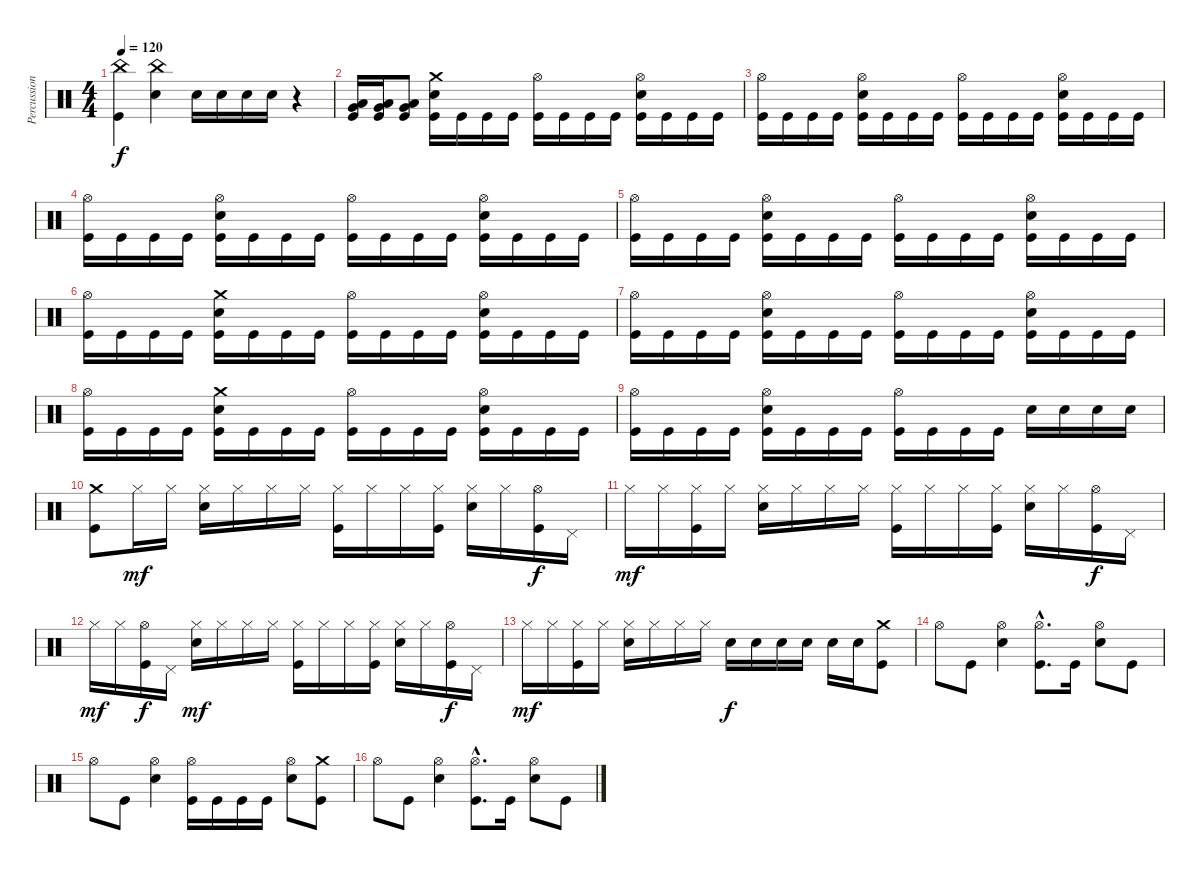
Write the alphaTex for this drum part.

\track ("Percussions" "Percussion") {instrument percussion}
\staff {score}
\articulation defaults
\ts (4 4)
\tempo 120
\clef neutral
\ks c
("Kick (hit)" "China (hit)").4{dy f} ("Electric Snare (hit)" "China (hit)").4 "Electric Snare (hit)".16 "Electric Snare (hit)".16 "Electric Snare (hit)".16 "Electric Snare (hit)".16 r.4 |
("Kick (hit)" "Very Low Tom (hit)" "Low Floor Tom (hit)").16 ("Kick (hit)" "Very Low Tom (hit)" "Low Floor Tom (hit)").16 ("Kick (hit)" "Very Low Tom (hit)" "Low Floor Tom (hit)").8 ("Kick (hit)" "Electric Snare (hit)" "Crash medium (hit)").16 "Kick (hit)".16 "Kick (hit)".16 "Kick (hit)".16 ("Kick (hit)" "Hi-Hat (open)").16 "Kick (hit)".16 "Kick (hit)".16 "Kick (hit)".16 ("Kick (hit)" "Electric Snare (hit)" "Hi-Hat (open)").16 "Kick (hit)".16 "Kick (hit)".16 "Kick (hit)".16 |
("Kick (hit)" "Hi-Hat (open)").16 "Kick (hit)".16 "Kick (hit)".16 "Kick (hit)".16 ("Kick (hit)" "Electric Snare (hit)" "Hi-Hat (open)").16 "Kick (hit)".16 "Kick (hit)".16 "Kick (hit)".16 ("Kick (hit)" "Hi-Hat (open)").16 "Kick (hit)".16 "Kick (hit)".16 "Kick (hit)".16 ("Kick (hit)" "Electric Snare (hit)" "Hi-Hat (open)").16 "Kick (hit)".16 "Kick (hit)".16 "Kick (hit)".16 |
("Kick (hit)" "Hi-Hat (open)").16 "Kick (hit)".16 "Kick (hit)".16 "Kick (hit)".16 ("Kick (hit)" "Electric Snare (hit)" "Hi-Hat (open)").16 "Kick (hit)".16 "Kick (hit)".16 "Kick (hit)".16 ("Kick (hit)" "Hi-Hat (open)").16 "Kick (hit)".16 "Kick (hit)".16 "Kick (hit)".16 ("Kick (hit)" "Electric Snare (hit)" "Hi-Hat (open)").16 "Kick (hit)".16 "Kick (hit)".16 "Kick (hit)".16 |
("Kick (hit)" "Hi-Hat (open)").16 "Kick (hit)".16 "Kick (hit)".16 "Kick (hit)".16 ("Kick (hit)" "Electric Snare (hit)" "Hi-Hat (open)").16 "Kick (hit)".16 "Kick (hit)".16 "Kick (hit)".16 ("Kick (hit)" "Hi-Hat (open)").16 "Kick (hit)".16 "Kick (hit)".16 "Kick (hit)".16 ("Kick (hit)" "Electric Snare (hit)" "Hi-Hat (open)").16 "Kick (hit)".16 "Kick (hit)".16 "Kick (hit)".16 |
("Kick (hit)" "Hi-Hat (open)").16 "Kick (hit)".16 "Kick (hit)".16 "Kick (hit)".16 ("Kick (hit)" "Electric Snare (hit)" "Crash medium (hit)").16 "Kick (hit)".16 "Kick (hit)".16 "Kick (hit)".16 ("Kick (hit)" "Hi-Hat (open)").16 "Kick (hit)".16 "Kick (hit)".16 "Kick (hit)".16 ("Kick (hit)" "Electric Snare (hit)" "Hi-Hat (open)").16 "Kick (hit)".16 "Kick (hit)".16 "Kick (hit)".16 |
("Kick (hit)" "Hi-Hat (open)").16 "Kick (hit)".16 "Kick (hit)".16 "Kick (hit)".16 ("Kick (hit)" "Electric Snare (hit)" "Hi-Hat (open)").16 "Kick (hit)".16 "Kick (hit)".16 "Kick (hit)".16 ("Kick (hit)" "Hi-Hat (open)").16 "Kick (hit)".16 "Kick (hit)".16 "Kick (hit)".16 ("Kick (hit)" "Electric Snare (hit)" "Hi-Hat (open)").16 "Kick (hit)".16 "Kick (hit)".16 "Kick (hit)".16 |
("Kick (hit)" "Hi-Hat (open)").16 "Kick (hit)".16 "Kick (hit)".16 "Kick (hit)".16 ("Kick (hit)" "Electric Snare (hit)" "Crash medium (hit)").16 "Kick (hit)".16 "Kick (hit)".16 "Kick (hit)".16 ("Kick (hit)" "Hi-Hat (open)").16 "Kick (hit)".16 "Kick (hit)".16 "Kick (hit)".16 ("Kick (hit)" "Electric Snare (hit)" "Hi-Hat (open)").16 "Kick (hit)".16 "Kick (hit)".16 "Kick (hit)".16 |
("Kick (hit)" "Hi-Hat (open)").16 "Kick (hit)".16 "Kick (hit)".16 "Kick (hit)".16 ("Kick (hit)" "Electric Snare (hit)" "Hi-Hat (open)").16 "Kick (hit)".16 "Kick (hit)".16 "Kick (hit)".16 ("Kick (hit)" "Hi-Hat (open)").16 "Kick (hit)".16 "Kick (hit)".16 "Kick (hit)".16 "Electric Snare (hit)".16 "Electric Snare (hit)".16 "Electric Snare (hit)".16 "Electric Snare (hit)".16 |
("Kick (hit)" "Crash medium (hit)").8 "Hi-Hat (closed)".16{dy mf} "Hi-Hat (closed)".16 ("Electric Snare (hit)" "Hi-Hat (closed)").16 "Hi-Hat (closed)".16 "Hi-Hat (closed)".16 "Hi-Hat (closed)".16 ("Kick (hit)" "Hi-Hat (closed)").16 "Hi-Hat (closed)".16 "Hi-Hat (closed)".16 ("Kick (hit)" "Hi-Hat (closed)").16 ("Electric Snare (hit)" "Hi-Hat (closed)").16 "Hi-Hat (closed)".16 ("Kick (hit)" "Hi-Hat (open)").16{dy f} "Pedal Hi-Hat (hit)".16 |
"Hi-Hat (closed)".16{dy mf} "Hi-Hat (closed)".16 ("Kick (hit)" "Hi-Hat (closed)").16 "Hi-Hat (closed)".16 ("Electric Snare (hit)" "Hi-Hat (closed)").16 "Hi-Hat (closed)".16 "Hi-Hat (closed)".16 "Hi-Hat (closed)".16 ("Kick (hit)" "Hi-Hat (closed)").16 "Hi-Hat (closed)".16 "Hi-Hat (closed)".16 ("Kick (hit)" "Hi-Hat (closed)").16 ("Electric Snare (hit)" "Hi-Hat (closed)").16 "Hi-Hat (closed)".16 ("Kick (hit)" "Hi-Hat (open)").16{dy f} "Pedal Hi-Hat (hit)".16 |
"Hi-Hat (closed)".16{dy mf} "Hi-Hat (closed)".16 ("Kick (hit)" "Hi-Hat (open)").16{dy f} "Pedal Hi-Hat (hit)".16 ("Electric Snare (hit)" "Hi-Hat (closed)").16{dy mf} "Hi-Hat (closed)".16 "Hi-Hat (closed)".16 "Hi-Hat (closed)".16 ("Kick (hit)" "Hi-Hat (closed)").16 "Hi-Hat (closed)".16 "Hi-Hat (closed)".16 ("Kick (hit)" "Hi-Hat (closed)").16 ("Electric Snare (hit)" "Hi-Hat (closed)").16 "Hi-Hat (closed)".16 ("Kick (hit)" "Hi-Hat (open)").16{dy f} "Pedal Hi-Hat (hit)".16 |
"Hi-Hat (closed)".16{dy mf} "Hi-Hat (closed)".16 ("Kick (hit)" "Hi-Hat (closed)").16 "Hi-Hat (closed)".16 ("Electric Snare (hit)" "Hi-Hat (closed)").16 "Hi-Hat (closed)".16 "Hi-Hat (closed)".16 "Hi-Hat (closed)".16 "Electric Snare (hit)".16{dy f} "Electric Snare (hit)".16 "Electric Snare (hit)".16 "Electric Snare (hit)".16 "Electric Snare (hit)".16 "Electric Snare (hit)".16 ("Kick (hit)" "Crash medium (hit)").8 |
"Hi-Hat (open)".8 "Kick (hit)".8 ("Electric Snare (hit)" "Hi-Hat (open)").4 ("Kick (hit)"{hac} "Hi-Hat (open)"{hac}).8{d} "Kick (hit)".16 ("Electric Snare (hit)" "Hi-Hat (open)").8 "Kick (hit)".8 |
"Hi-Hat (open)".8 "Kick (hit)".8 ("Electric Snare (hit)" "Hi-Hat (open)").4 ("Kick (hit)" "Hi-Hat (open)").16 "Kick (hit)".16 "Kick (hit)".16 "Kick (hit)".16 ("Electric Snare (hit)" "Hi-Hat (open)").8 ("Kick (hit)" "Crash medium (hit)").8 |
"Hi-Hat (open)".8 "Kick (hit)".8 ("Electric Snare (hit)" "Hi-Hat (open)").4 ("Kick (hit)"{hac} "Hi-Hat (open)"{hac}).8{d} "Kick (hit)".16 ("Electric Snare (hit)" "Hi-Hat (open)").8 "Kick (hit)".8
